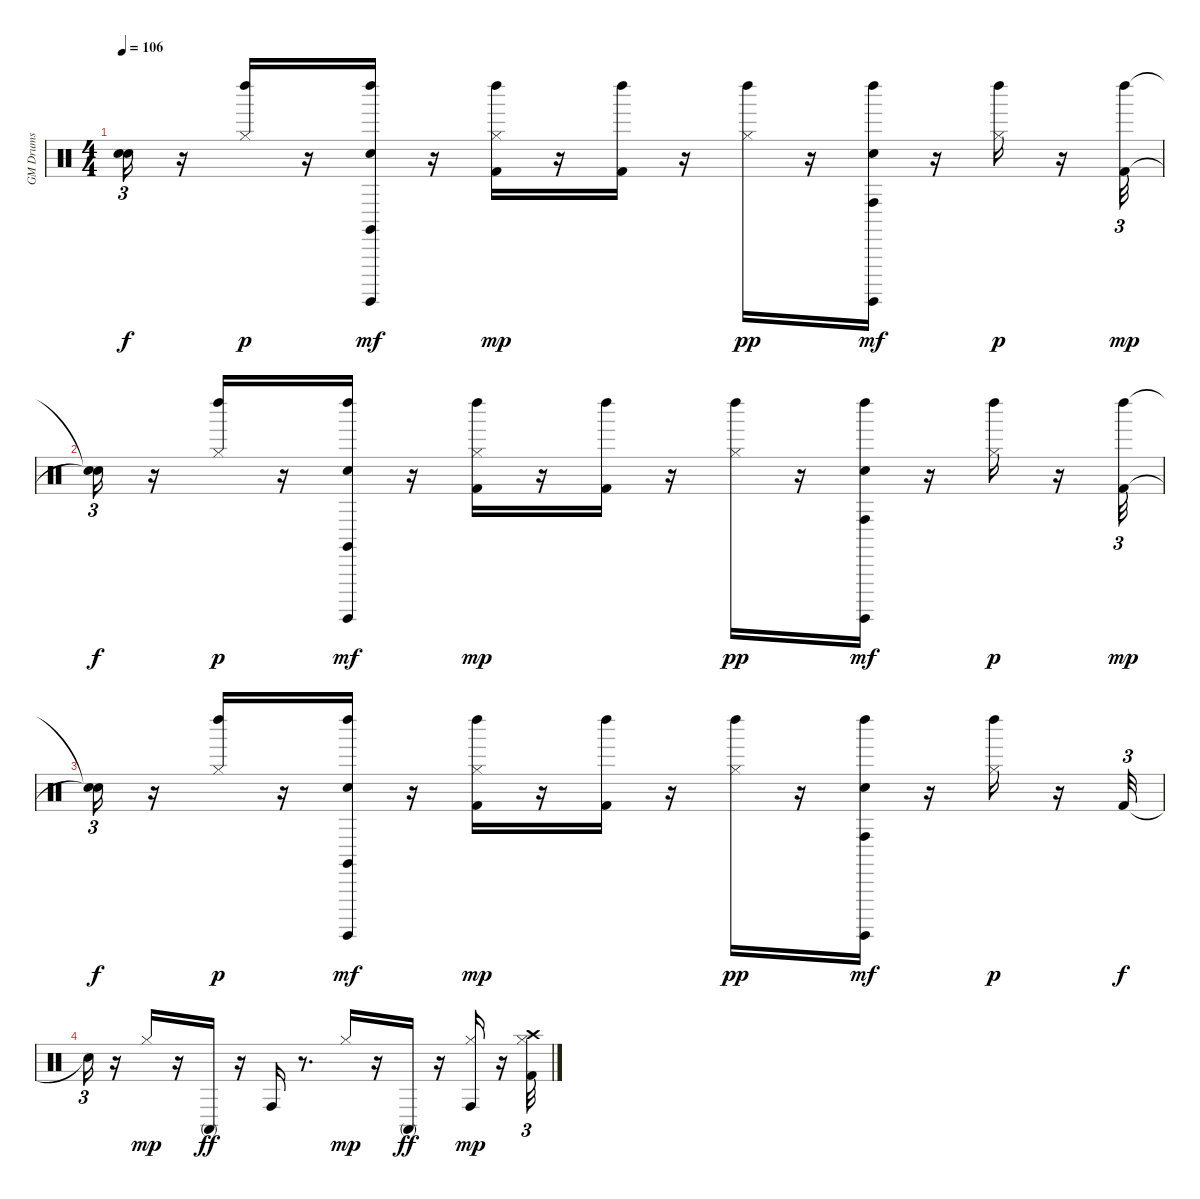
\track ("GM Drums" "GM Drums") {instrument percussion}
\staff {score}
\articulation defaults
\ts (4 4)
\tempo 106
\clef neutral
\ks c
("Snare (hit)"{t} "Snare (hit)"{t}).16{tu (3 2) dy f} r.16 ("Hi-Hat (closed)" "Left Maraca (hit)").16{dy p} r.16 ("Hand Clap (hit)" "Left Maraca (hit)" "Claves (hit)" "Surdo (hit)").16{dy mf} r.16 ("Kick (hit) 2" "Hi-Hat (closed)" "Left Maraca (hit)").16{dy mp} r.16 ("Kick (hit) 2" "Left Maraca (hit)").16 r.16 ("Hi-Hat (closed)" "Left Maraca (hit)").16{dy pp} r.16 ("Hand Clap (hit)" "Conga high (hit)" "Left Maraca (hit)" "Surdo (hit)").16{dy mf} r.16 ("Hi-Hat (closed)" "Left Maraca (hit)").16{dy p} r.16 ("Kick (hit) 2" "Left Maraca (hit)").32{tu (3 2) dy mp} |
("Snare (hit)"{t} "Snare (hit)"{t}).16{tu (3 2) dy f} r.16 ("Hi-Hat (closed)" "Left Maraca (hit)").16{dy p} r.16 ("Hand Clap (hit)" "Left Maraca (hit)" "Claves (hit)" "Surdo (hit)").16{dy mf} r.16 ("Kick (hit) 2" "Hi-Hat (closed)" "Left Maraca (hit)").16{dy mp} r.16 ("Kick (hit) 2" "Left Maraca (hit)").16 r.16 ("Hi-Hat (closed)" "Left Maraca (hit)").16{dy pp} r.16 ("Hand Clap (hit)" "Conga high (hit)" "Left Maraca (hit)" "Surdo (hit)").16{dy mf} r.16 ("Hi-Hat (closed)" "Left Maraca (hit)").16{dy p} r.16 ("Kick (hit) 2" "Left Maraca (hit)").32{tu (3 2) dy mp} |
("Snare (hit)"{t} "Snare (hit)"{t}).16{tu (3 2) dy f} r.16 ("Hi-Hat (closed)" "Left Maraca (hit)").16{dy p} r.16 ("Hand Clap (hit)" "Left Maraca (hit)" "Claves (hit)" "Surdo (hit)").16{dy mf} r.16 ("Kick (hit) 2" "Hi-Hat (closed)" "Left Maraca (hit)").16{dy mp} r.16 ("Kick (hit) 2" "Left Maraca (hit)").16 r.16 ("Hi-Hat (closed)" "Left Maraca (hit)").16{dy pp} r.16 ("Hand Clap (hit)" "Conga high (hit)" "Left Maraca (hit)" "Surdo (hit)").16{dy mf} r.16 ("Hi-Hat (closed)" "Left Maraca (hit)").16{dy p} r.16 "Kick (hit) 2".32{tu (3 2) dy f} |
"Snare (hit)"{t}.16{tu (3 2)} r.16 "Hi-Hat (closed)".16{dy mp} r.16 "Conga high (mute)".16{dy ff} r.16 "Conga high (hit)".16 r.8{d} "Hi-Hat (closed)".16{dy mp} r.16 "Conga high (mute)".16{dy ff} r.16 ("Hi-Hat (closed)" "Conga high (hit)").16{dy mp} r.16 ("Kick (hit) 2" "Hi-Hat (closed)" "Crash high (hit)").32{tu (3 2)}
